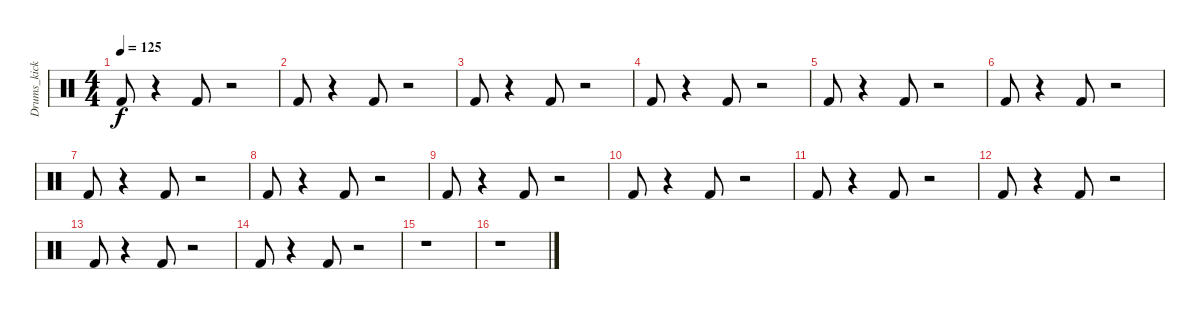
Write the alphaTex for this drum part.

\track ("Drums_kick" "Drums_kick") {instrument percussion}
\staff {score}
\articulation defaults
\ts (4 4)
\tempo 125
\clef neutral
\ks c "Kick (hit) 2".8{dy f}
r.4 "Kick (hit) 2".8 r.2 |
"Kick (hit) 2".8 r.4 "Kick (hit) 2".8 r.2 |
"Kick (hit) 2".8 r.4 "Kick (hit) 2".8 r.2 |
"Kick (hit) 2".8 r.4 "Kick (hit) 2".8 r.2 |
"Kick (hit) 2".8 r.4 "Kick (hit) 2".8 r.2 |
"Kick (hit) 2".8 r.4 "Kick (hit) 2".8 r.2 |
"Kick (hit) 2".8 r.4 "Kick (hit) 2".8 r.2 |
"Kick (hit) 2".8 r.4 "Kick (hit) 2".8 r.2 |
"Kick (hit) 2".8 r.4 "Kick (hit) 2".8 r.2 |
"Kick (hit) 2".8 r.4 "Kick (hit) 2".8 r.2 |
"Kick (hit) 2".8 r.4 "Kick (hit) 2".8 r.2 |
"Kick (hit) 2".8 r.4 "Kick (hit) 2".8 r.2 |
"Kick (hit) 2".8 r.4 "Kick (hit) 2".8 r.2 |
"Kick (hit) 2".8 r.4 "Kick (hit) 2".8 r.2 |
r.1 |
r.1
